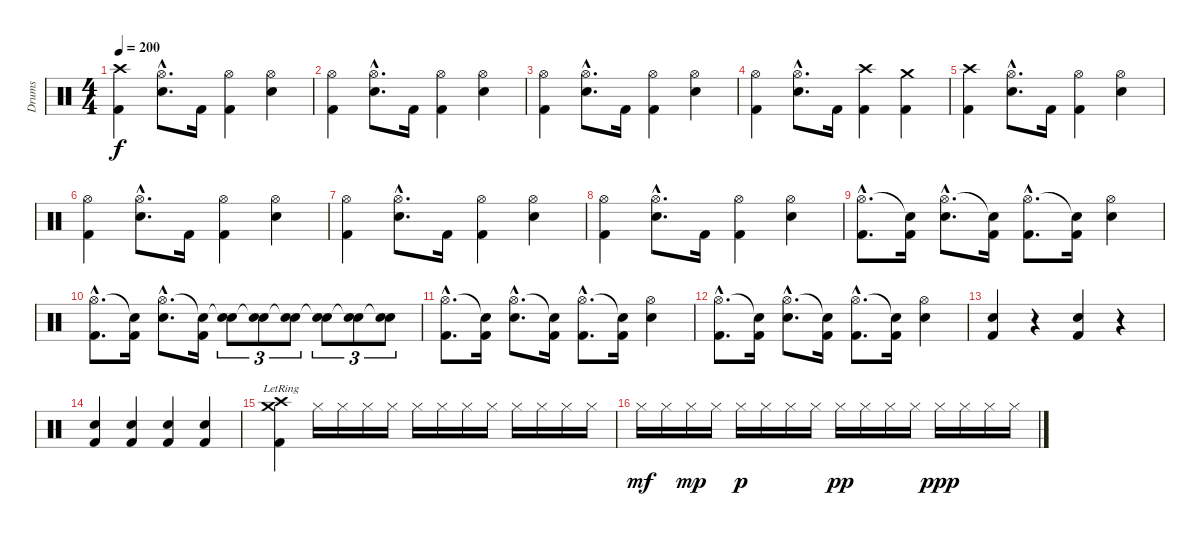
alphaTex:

\track ("Drums" "Drums") {instrument percussion}
\staff {score}
\articulation defaults
\ts (4 4)
\tempo 200
\clef neutral
\ks c
("Crash high (hit)" "Kick (hit) 2").4{dy f} ("Hi-Hat (open)"{hac} "Electric Snare (hit)"{hac}).8{d} "Kick (hit) 2".16 ("Hi-Hat (open)" "Kick (hit) 2").4 ("Hi-Hat (open)" "Electric Snare (hit)").4 |
("Hi-Hat (open)" "Kick (hit) 2").4 ("Hi-Hat (open)"{hac} "Electric Snare (hit)"{hac}).8{d} "Kick (hit) 2".16 ("Hi-Hat (open)" "Kick (hit) 2").4 ("Hi-Hat (open)" "Electric Snare (hit)").4 |
("Hi-Hat (open)" "Kick (hit) 2").4 ("Hi-Hat (open)"{hac} "Electric Snare (hit)"{hac}).8{d} "Kick (hit) 2".16 ("Hi-Hat (open)" "Kick (hit) 2").4 ("Hi-Hat (open)" "Electric Snare (hit)").4 |
("Hi-Hat (open)" "Kick (hit) 2").4 ("Hi-Hat (open)"{hac} "Electric Snare (hit)"{hac}).8{d} "Kick (hit) 2".16 ("Crash high (hit)" "Kick (hit) 2").4 ("Crash medium (hit)" "Kick (hit) 2").4 |
("Crash high (hit)" "Kick (hit) 2").4 ("Hi-Hat (open)"{hac} "Electric Snare (hit)"{hac}).8{d} "Kick (hit) 2".16 ("Hi-Hat (open)" "Kick (hit) 2").4 ("Hi-Hat (open)" "Electric Snare (hit)").4 |
("Hi-Hat (open)" "Kick (hit) 2").4 ("Hi-Hat (open)"{hac} "Electric Snare (hit)"{hac}).8{d} "Kick (hit) 2".16 ("Hi-Hat (open)" "Kick (hit) 2").4 ("Hi-Hat (open)" "Electric Snare (hit)").4 |
("Hi-Hat (open)" "Kick (hit) 2").4 ("Hi-Hat (open)"{hac} "Electric Snare (hit)"{hac}).8{d} "Kick (hit) 2".16 ("Hi-Hat (open)" "Kick (hit) 2").4 ("Hi-Hat (open)" "Electric Snare (hit)").4 |
("Hi-Hat (open)" "Kick (hit) 2").4 ("Hi-Hat (open)"{hac} "Electric Snare (hit)"{hac}).8{d} "Kick (hit) 2".16 ("Hi-Hat (open)" "Kick (hit) 2").4 ("Hi-Hat (open)" "Electric Snare (hit)").4 |
("Hi-Hat (open)"{hac} "Kick (hit) 2"{hac}).8{d} ("Snare (hit)"{t} "Kick (hit) 2").16 ("Hi-Hat (open)"{hac} "Electric Snare (hit)"{hac}).8{d} ("Snare (hit)"{t} "Kick (hit) 2").16 ("Hi-Hat (open)"{hac} "Kick (hit) 2"{hac}).8{d} ("Snare (hit)"{t} "Kick (hit) 2").16 ("Hi-Hat (open)" "Electric Snare (hit)").4 |
("Hi-Hat (open)"{hac} "Kick (hit) 2"{hac}).8{d} ("Snare (hit)"{t} "Kick (hit) 2").16 ("Hi-Hat (open)"{hac} "Electric Snare (hit)"{hac}).8{d} ("Snare (hit)"{t} "Kick (hit) 2").16 ("Snare (hit)"{t} "Electric Snare (hit)").8{tu (3 2)} ("Snare (hit)"{t} "Electric Snare (hit)").8{tu (3 2)} ("Snare (hit)"{t} "Electric Snare (hit)").8{tu (3 2)} ("Snare (hit)"{t} "Electric Snare (hit)").8{tu (3 2)} ("Snare (hit)"{t} "Electric Snare (hit)").8{tu (3 2)} ("Snare (hit)"{t} "Electric Snare (hit)").8{tu (3 2)} |
("Hi-Hat (open)"{hac} "Kick (hit) 2"{hac}).8{d} ("Snare (hit)"{t} "Kick (hit) 2").16 ("Hi-Hat (open)"{hac} "Electric Snare (hit)"{hac}).8{d} ("Snare (hit)"{t} "Kick (hit) 2").16 ("Hi-Hat (open)"{hac} "Kick (hit) 2"{hac}).8{d} ("Snare (hit)"{t} "Kick (hit) 2").16 ("Hi-Hat (open)" "Electric Snare (hit)").4 |
("Hi-Hat (open)"{hac} "Kick (hit) 2"{hac}).8{d} ("Snare (hit)"{t} "Kick (hit) 2").16 ("Hi-Hat (open)"{hac} "Electric Snare (hit)"{hac}).8{d} ("Snare (hit)"{t} "Kick (hit) 2").16 ("Hi-Hat (open)"{hac} "Kick (hit) 2"{hac}).8{d} ("Snare (hit)"{t} "Kick (hit) 2").16 ("Hi-Hat (open)" "Electric Snare (hit)").4 |
("Electric Snare (hit)" "Kick (hit) 2").4 r.4 ("Electric Snare (hit)" "Kick (hit) 2").4 r.4 |
("Electric Snare (hit)" "Kick (hit) 2").4 ("Electric Snare (hit)" "Kick (hit) 2").4 ("Electric Snare (hit)" "Kick (hit) 2").4 ("Electric Snare (hit)" "Kick (hit) 2").4 |
("Crash high (hit)"{lr} "Crash medium (hit)"{lr} "Kick (hit) 2"{lr}).4 "Hi-Hat (closed)".16 "Hi-Hat (closed)".16 "Hi-Hat (closed)".16 "Hi-Hat (closed)".16 "Hi-Hat (closed)".16 "Hi-Hat (closed)".16 "Hi-Hat (closed)".16 "Hi-Hat (closed)".16 "Hi-Hat (closed)".16 "Hi-Hat (closed)".16 "Hi-Hat (closed)".16 "Hi-Hat (closed)".16 |
"Hi-Hat (closed)".16{dy mf} "Hi-Hat (closed)".16 "Hi-Hat (closed)".16{dy mp} "Hi-Hat (closed)".16 "Hi-Hat (closed)".16{dy p} "Hi-Hat (closed)".16 "Hi-Hat (closed)".16 "Hi-Hat (closed)".16 "Hi-Hat (closed)".16{dy pp} "Hi-Hat (closed)".16 "Hi-Hat (closed)".16 "Hi-Hat (closed)".16 "Hi-Hat (closed)".16{dy ppp} "Hi-Hat (closed)".16 "Hi-Hat (closed)".16 "Hi-Hat (closed)".16
